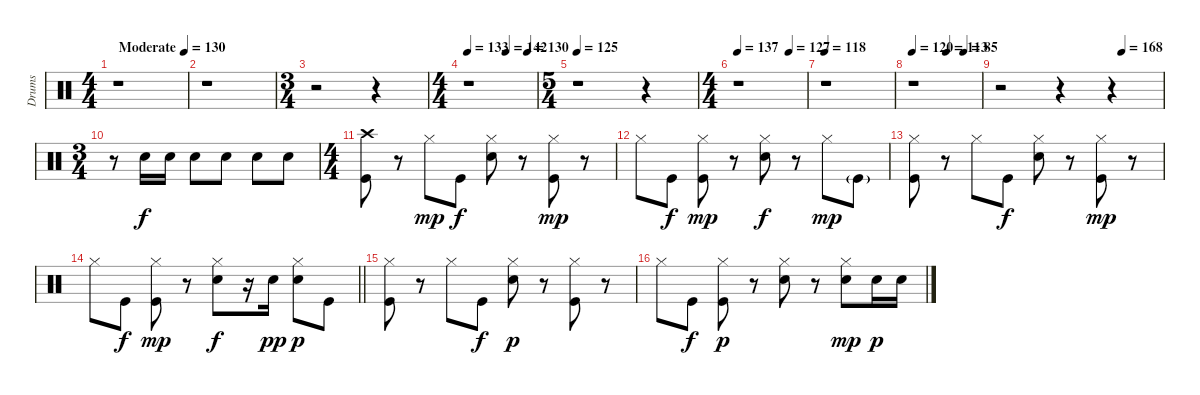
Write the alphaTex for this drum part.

\track ("Drums" "Drums") {instrument percussion}
\staff {score}
\articulation defaults
\ts (4 4)
\section ("" "")
\tempo (130 "Moderate")
\clef neutral
\ks c
r.1{dy f} |
r.1 |
\ts (3 4)
r.2 r.4 |
\ts (4 4)
\tempo 133
\tempo (142 0.5625)
\tempo (130 0.875)
r.1 |
\ts (5 4)
\tempo 125
r.1 r.4 |
\ts (4 4)
\tempo 137
\tempo (127 0.75)
r.1 |
\tempo 118
r.1 |
\tempo 122
\tempo (113 0.5)
\tempo (85 0.75)
\tempo 120
r.1 |
\tempo (168 0.75)
r.2 r.4 r.4 |
\ts (3 4)
r.8 "Electric Snare (hit)".16 "Electric Snare (hit)".16 "Electric Snare (hit)".8 "Electric Snare (hit)".8 "Snare (hit) 2".8 "Electric Snare (hit)".8 |
\ts (4 4)
("Crash high (hit)" "Kick (hit)").8 r.8 "Hi-Hat (closed)".8{dy mp} "Kick (hit)".8{dy f} ("Hi-Hat (closed)" "Electric Snare (hit)").8 r.8 ("Hi-Hat (closed)" "Kick (hit)").8{dy mp} r.8 |
"Hi-Hat (closed)".8 "Kick (hit)".8{dy f} ("Hi-Hat (closed)" "Kick (hit)").8{dy mp} r.8 ("Hi-Hat (closed)" "Electric Snare (hit)").8{dy f} r.8 "Hi-Hat (closed)".8{dy mp} "Kick (hit)"{g}.8 |
("Hi-Hat (closed)" "Kick (hit)").8 r.8 "Hi-Hat (closed)".8 "Kick (hit)".8{dy f} ("Hi-Hat (closed)" "Electric Snare (hit)").8 r.8 ("Hi-Hat (closed)" "Kick (hit)").8{dy mp} r.8 |
\barLineRight lightlight "Hi-Hat (closed)".8 "Kick (hit)".8{dy f}
("Hi-Hat (closed)" "Kick (hit)").8{dy mp} r.8 ("Hi-Hat (closed)" "Electric Snare (hit)").8{dy f} r.16 "Electric Snare (hit)".16{dy pp} ("Hi-Hat (closed)" "Electric Snare (hit)").8{dy p} "Kick (hit)".8 |
\section ("" "")
("Hi-Hat (closed)" "Kick (hit)").8 r.8 "Hi-Hat (closed)".8 "Kick (hit)".8{dy f} ("Hi-Hat (closed)" "Electric Snare (hit)").8{dy p} r.8 ("Hi-Hat (closed)" "Kick (hit)").8 r.8 |
"Hi-Hat (closed)".8 "Kick (hit)".8{dy f} ("Hi-Hat (closed)" "Kick (hit)").8{dy p} r.8 ("Hi-Hat (closed)" "Electric Snare (hit)").8 r.8 ("Hi-Hat (closed)" "Electric Snare (hit)").8{dy mp} "Electric Snare (hit)".16{dy p} "Electric Snare (hit)".16
